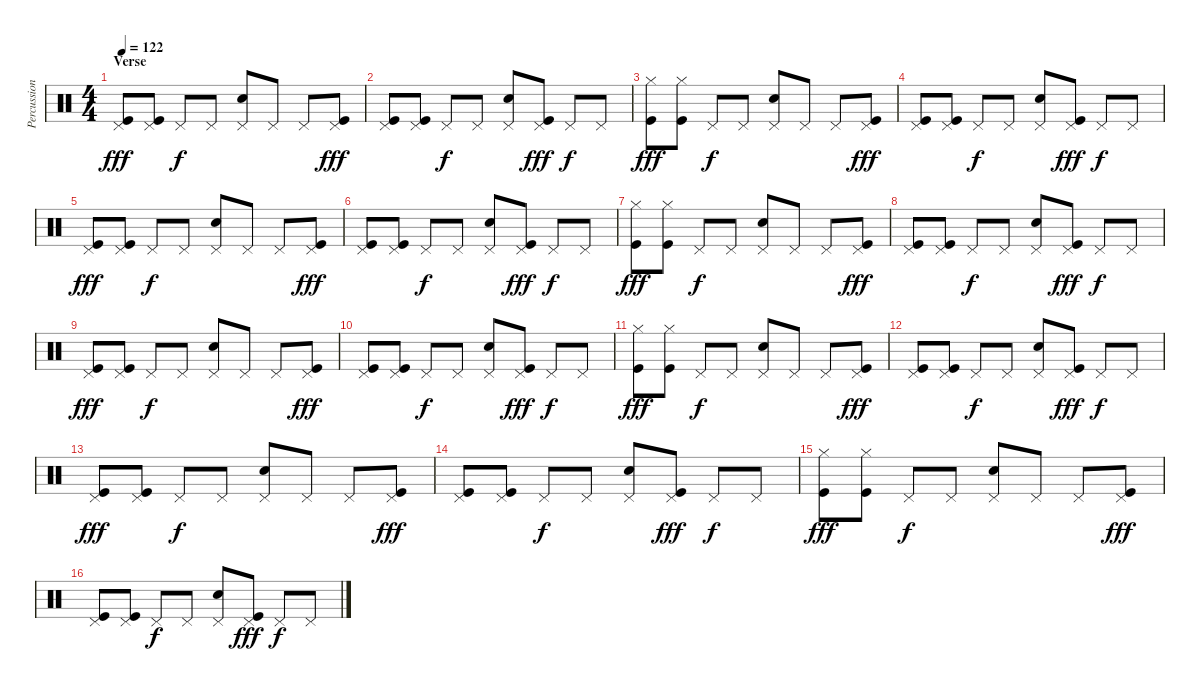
\track ("Percussion" "Percussion") {instrument percussion}
\staff {score}
\articulation defaults
\ts (4 4)
\section ("" "Verse")
\tempo 122
\clef neutral
\ks c
("Pedal Hi-Hat (hit)" "Kick (hit)").8{dy fff} ("Pedal Hi-Hat (hit)" "Kick (hit)").8 "Pedal Hi-Hat (hit)".8{dy f} "Pedal Hi-Hat (hit)".8 ("Pedal Hi-Hat (hit)" "Snare (hit) 2").8 "Pedal Hi-Hat (hit)".8 "Pedal Hi-Hat (hit)".8 ("Pedal Hi-Hat (hit)" "Kick (hit)").8{dy fff} |
("Pedal Hi-Hat (hit)" "Kick (hit)").8 ("Pedal Hi-Hat (hit)" "Kick (hit)").8 "Pedal Hi-Hat (hit)".8{dy f} "Pedal Hi-Hat (hit)".8 ("Pedal Hi-Hat (hit)" "Snare (hit) 2").8 ("Pedal Hi-Hat (hit)" "Kick (hit)").8{dy fff} "Pedal Hi-Hat (hit)".8{dy f} "Pedal Hi-Hat (hit)".8 |
("Hi-Hat (closed)" "Kick (hit)").8{dy fff} ("Hi-Hat (closed)" "Kick (hit)").8 "Pedal Hi-Hat (hit)".8{dy f} "Pedal Hi-Hat (hit)".8 ("Pedal Hi-Hat (hit)" "Snare (hit) 2").8 "Pedal Hi-Hat (hit)".8 "Pedal Hi-Hat (hit)".8 ("Pedal Hi-Hat (hit)" "Kick (hit)").8{dy fff} |
("Pedal Hi-Hat (hit)" "Kick (hit)").8 ("Pedal Hi-Hat (hit)" "Kick (hit)").8 "Pedal Hi-Hat (hit)".8{dy f} "Pedal Hi-Hat (hit)".8 ("Pedal Hi-Hat (hit)" "Snare (hit) 2").8 ("Pedal Hi-Hat (hit)" "Kick (hit)").8{dy fff} "Pedal Hi-Hat (hit)".8{dy f} "Pedal Hi-Hat (hit)".8 |
("Pedal Hi-Hat (hit)" "Kick (hit)").8{dy fff} ("Pedal Hi-Hat (hit)" "Kick (hit)").8 "Pedal Hi-Hat (hit)".8{dy f} "Pedal Hi-Hat (hit)".8 ("Pedal Hi-Hat (hit)" "Snare (hit) 2").8 "Pedal Hi-Hat (hit)".8 "Pedal Hi-Hat (hit)".8 ("Pedal Hi-Hat (hit)" "Kick (hit)").8{dy fff} |
("Pedal Hi-Hat (hit)" "Kick (hit)").8 ("Pedal Hi-Hat (hit)" "Kick (hit)").8 "Pedal Hi-Hat (hit)".8{dy f} "Pedal Hi-Hat (hit)".8 ("Pedal Hi-Hat (hit)" "Snare (hit) 2").8 ("Pedal Hi-Hat (hit)" "Kick (hit)").8{dy fff} "Pedal Hi-Hat (hit)".8{dy f} "Pedal Hi-Hat (hit)".8 |
("Hi-Hat (closed)" "Kick (hit)").8{dy fff} ("Hi-Hat (closed)" "Kick (hit)").8 "Pedal Hi-Hat (hit)".8{dy f} "Pedal Hi-Hat (hit)".8 ("Pedal Hi-Hat (hit)" "Snare (hit) 2").8 "Pedal Hi-Hat (hit)".8 "Pedal Hi-Hat (hit)".8 ("Pedal Hi-Hat (hit)" "Kick (hit)").8{dy fff} |
("Pedal Hi-Hat (hit)" "Kick (hit)").8 ("Pedal Hi-Hat (hit)" "Kick (hit)").8 "Pedal Hi-Hat (hit)".8{dy f} "Pedal Hi-Hat (hit)".8 ("Pedal Hi-Hat (hit)" "Snare (hit) 2").8 ("Pedal Hi-Hat (hit)" "Kick (hit)").8{dy fff} "Pedal Hi-Hat (hit)".8{dy f} "Pedal Hi-Hat (hit)".8 |
("Pedal Hi-Hat (hit)" "Kick (hit)").8{dy fff} ("Pedal Hi-Hat (hit)" "Kick (hit)").8 "Pedal Hi-Hat (hit)".8{dy f} "Pedal Hi-Hat (hit)".8 ("Pedal Hi-Hat (hit)" "Snare (hit) 2").8 "Pedal Hi-Hat (hit)".8 "Pedal Hi-Hat (hit)".8 ("Pedal Hi-Hat (hit)" "Kick (hit)").8{dy fff} |
("Pedal Hi-Hat (hit)" "Kick (hit)").8 ("Pedal Hi-Hat (hit)" "Kick (hit)").8 "Pedal Hi-Hat (hit)".8{dy f} "Pedal Hi-Hat (hit)".8 ("Pedal Hi-Hat (hit)" "Snare (hit) 2").8 ("Pedal Hi-Hat (hit)" "Kick (hit)").8{dy fff} "Pedal Hi-Hat (hit)".8{dy f} "Pedal Hi-Hat (hit)".8 |
("Hi-Hat (closed)" "Kick (hit)").8{dy fff} ("Hi-Hat (closed)" "Kick (hit)").8 "Pedal Hi-Hat (hit)".8{dy f} "Pedal Hi-Hat (hit)".8 ("Pedal Hi-Hat (hit)" "Snare (hit) 2").8 "Pedal Hi-Hat (hit)".8 "Pedal Hi-Hat (hit)".8 ("Pedal Hi-Hat (hit)" "Kick (hit)").8{dy fff} |
("Pedal Hi-Hat (hit)" "Kick (hit)").8 ("Pedal Hi-Hat (hit)" "Kick (hit)").8 "Pedal Hi-Hat (hit)".8{dy f} "Pedal Hi-Hat (hit)".8 ("Pedal Hi-Hat (hit)" "Snare (hit) 2").8 ("Pedal Hi-Hat (hit)" "Kick (hit)").8{dy fff} "Pedal Hi-Hat (hit)".8{dy f} "Pedal Hi-Hat (hit)".8 |
("Pedal Hi-Hat (hit)" "Kick (hit)").8{dy fff} ("Pedal Hi-Hat (hit)" "Kick (hit)").8 "Pedal Hi-Hat (hit)".8{dy f} "Pedal Hi-Hat (hit)".8 ("Pedal Hi-Hat (hit)" "Snare (hit) 2").8 "Pedal Hi-Hat (hit)".8 "Pedal Hi-Hat (hit)".8 ("Pedal Hi-Hat (hit)" "Kick (hit)").8{dy fff} |
("Pedal Hi-Hat (hit)" "Kick (hit)").8 ("Pedal Hi-Hat (hit)" "Kick (hit)").8 "Pedal Hi-Hat (hit)".8{dy f} "Pedal Hi-Hat (hit)".8 ("Pedal Hi-Hat (hit)" "Snare (hit) 2").8 ("Pedal Hi-Hat (hit)" "Kick (hit)").8{dy fff} "Pedal Hi-Hat (hit)".8{dy f} "Pedal Hi-Hat (hit)".8 |
("Hi-Hat (closed)" "Kick (hit)").8{dy fff} ("Hi-Hat (closed)" "Kick (hit)").8 "Pedal Hi-Hat (hit)".8{dy f} "Pedal Hi-Hat (hit)".8 ("Pedal Hi-Hat (hit)" "Snare (hit) 2").8 "Pedal Hi-Hat (hit)".8 "Pedal Hi-Hat (hit)".8 ("Pedal Hi-Hat (hit)" "Kick (hit)").8{dy fff} |
("Pedal Hi-Hat (hit)" "Kick (hit)").8 ("Pedal Hi-Hat (hit)" "Kick (hit)").8 "Pedal Hi-Hat (hit)".8{dy f} "Pedal Hi-Hat (hit)".8 ("Pedal Hi-Hat (hit)" "Snare (hit) 2").8 ("Pedal Hi-Hat (hit)" "Kick (hit)").8{dy fff} "Pedal Hi-Hat (hit)".8{dy f} "Pedal Hi-Hat (hit)".8
